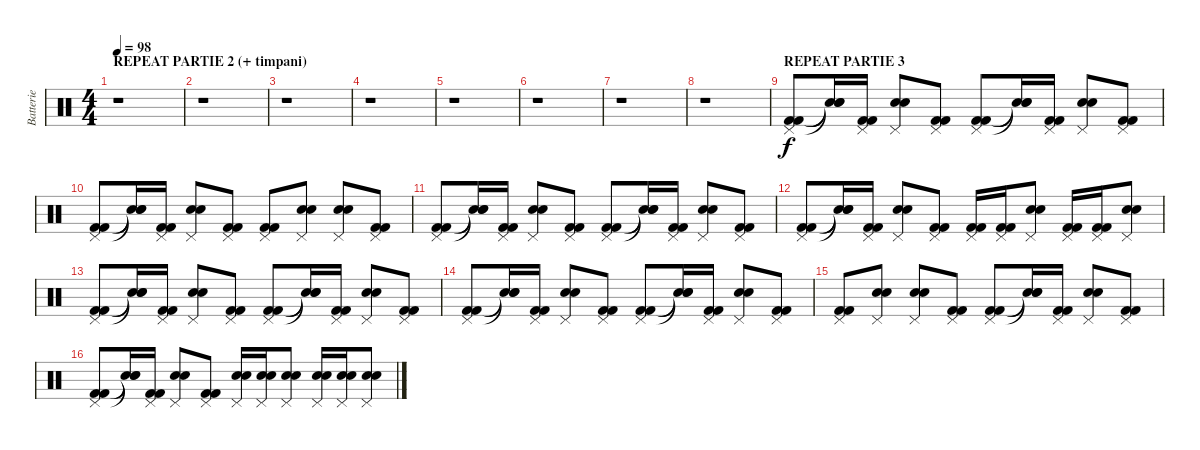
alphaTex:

\track ("Batterie" "Batterie") {instrument percussion}
\staff {score}
\articulation defaults
\ts (4 4)
\section ("" "REPEAT PARTIE 2 (+ timpani)")
\tempo 98
\clef neutral
\ks c
r.1{dy f} |
r.1 |
r.1 |
r.1 |
r.1 |
r.1 |
r.1 |
r.1 |
\section ("" "REPEAT PARTIE 3")
("Pedal Hi-Hat (hit)" "Kick (hit) 2" "Kick (hit) 2").8 ("Snare (hit)"{t} "Snare (hit)"{t} "Snare (hit)"{t}).16 ("Pedal Hi-Hat (hit)" "Kick (hit) 2" "Kick (hit) 2").16 ("Pedal Hi-Hat (hit)" "Electric Snare (hit)" "Electric Snare (hit)").8 ("Pedal Hi-Hat (hit)" "Kick (hit) 2" "Kick (hit) 2").8 ("Pedal Hi-Hat (hit)" "Kick (hit) 2" "Kick (hit) 2").8 ("Snare (hit)"{t} "Snare (hit)"{t} "Snare (hit)"{t}).16 ("Pedal Hi-Hat (hit)" "Kick (hit) 2" "Kick (hit) 2").16 ("Pedal Hi-Hat (hit)" "Electric Snare (hit)" "Electric Snare (hit)").8 ("Pedal Hi-Hat (hit)" "Kick (hit) 2" "Kick (hit) 2").8 |
("Pedal Hi-Hat (hit)" "Kick (hit) 2" "Kick (hit) 2").8 ("Snare (hit)"{t} "Snare (hit)"{t} "Snare (hit)"{t}).16 ("Pedal Hi-Hat (hit)" "Kick (hit) 2" "Kick (hit) 2").16 ("Pedal Hi-Hat (hit)" "Electric Snare (hit)" "Electric Snare (hit)").8 ("Pedal Hi-Hat (hit)" "Kick (hit) 2" "Kick (hit) 2").8 ("Pedal Hi-Hat (hit)" "Kick (hit) 2" "Kick (hit) 2").8 ("Pedal Hi-Hat (hit)" "Electric Snare (hit)" "Electric Snare (hit)").8 ("Pedal Hi-Hat (hit)" "Electric Snare (hit)" "Electric Snare (hit)").8 ("Pedal Hi-Hat (hit)" "Kick (hit) 2" "Kick (hit) 2").8 |
("Pedal Hi-Hat (hit)" "Kick (hit) 2" "Kick (hit) 2").8 ("Snare (hit)"{t} "Snare (hit)"{t} "Snare (hit)"{t}).16 ("Pedal Hi-Hat (hit)" "Kick (hit) 2" "Kick (hit) 2").16 ("Pedal Hi-Hat (hit)" "Electric Snare (hit)" "Electric Snare (hit)").8 ("Pedal Hi-Hat (hit)" "Kick (hit) 2" "Kick (hit) 2").8 ("Pedal Hi-Hat (hit)" "Kick (hit) 2" "Kick (hit) 2").8 ("Snare (hit)"{t} "Snare (hit)"{t} "Snare (hit)"{t}).16 ("Pedal Hi-Hat (hit)" "Kick (hit) 2" "Kick (hit) 2").16 ("Pedal Hi-Hat (hit)" "Electric Snare (hit)" "Electric Snare (hit)").8 ("Pedal Hi-Hat (hit)" "Kick (hit) 2" "Kick (hit) 2").8 |
("Pedal Hi-Hat (hit)" "Kick (hit) 2" "Kick (hit) 2").8 ("Snare (hit)"{t} "Snare (hit)"{t} "Snare (hit)"{t}).16 ("Pedal Hi-Hat (hit)" "Kick (hit) 2" "Kick (hit) 2").16 ("Pedal Hi-Hat (hit)" "Electric Snare (hit)" "Electric Snare (hit)").8 ("Pedal Hi-Hat (hit)" "Kick (hit) 2" "Kick (hit) 2").8 ("Pedal Hi-Hat (hit)" "Kick (hit) 2" "Kick (hit) 2").16 ("Pedal Hi-Hat (hit)" "Kick (hit) 2" "Kick (hit) 2").16 ("Pedal Hi-Hat (hit)" "Electric Snare (hit)" "Electric Snare (hit)").8 ("Pedal Hi-Hat (hit)" "Kick (hit) 2" "Kick (hit) 2").16 ("Pedal Hi-Hat (hit)" "Kick (hit) 2" "Kick (hit) 2").16 ("Pedal Hi-Hat (hit)" "Electric Snare (hit)" "Electric Snare (hit)").8 |
("Pedal Hi-Hat (hit)" "Kick (hit) 2" "Kick (hit) 2").8 ("Snare (hit)"{t} "Snare (hit)"{t} "Snare (hit)"{t}).16 ("Pedal Hi-Hat (hit)" "Kick (hit) 2" "Kick (hit) 2").16 ("Pedal Hi-Hat (hit)" "Electric Snare (hit)" "Electric Snare (hit)").8 ("Pedal Hi-Hat (hit)" "Kick (hit) 2" "Kick (hit) 2").8 ("Pedal Hi-Hat (hit)" "Kick (hit) 2" "Kick (hit) 2").8 ("Snare (hit)"{t} "Snare (hit)"{t} "Snare (hit)"{t}).16 ("Pedal Hi-Hat (hit)" "Kick (hit) 2" "Kick (hit) 2").16 ("Pedal Hi-Hat (hit)" "Electric Snare (hit)" "Electric Snare (hit)").8 ("Pedal Hi-Hat (hit)" "Kick (hit) 2" "Kick (hit) 2").8 |
("Pedal Hi-Hat (hit)" "Kick (hit) 2" "Kick (hit) 2").8 ("Snare (hit)"{t} "Snare (hit)"{t} "Snare (hit)"{t}).16 ("Pedal Hi-Hat (hit)" "Kick (hit) 2" "Kick (hit) 2").16 ("Pedal Hi-Hat (hit)" "Electric Snare (hit)" "Electric Snare (hit)").8 ("Pedal Hi-Hat (hit)" "Kick (hit) 2" "Kick (hit) 2").8 ("Pedal Hi-Hat (hit)" "Kick (hit) 2" "Kick (hit) 2").8 ("Snare (hit)"{t} "Snare (hit)"{t} "Snare (hit)"{t}).16 ("Pedal Hi-Hat (hit)" "Kick (hit) 2" "Kick (hit) 2").16 ("Pedal Hi-Hat (hit)" "Electric Snare (hit)" "Electric Snare (hit)").8 ("Pedal Hi-Hat (hit)" "Kick (hit) 2" "Kick (hit) 2").8 |
("Pedal Hi-Hat (hit)" "Kick (hit) 2" "Kick (hit) 2").8 ("Pedal Hi-Hat (hit)" "Electric Snare (hit)" "Electric Snare (hit)").8 ("Pedal Hi-Hat (hit)" "Electric Snare (hit)" "Electric Snare (hit)").8 ("Pedal Hi-Hat (hit)" "Kick (hit) 2" "Kick (hit) 2").8 ("Pedal Hi-Hat (hit)" "Kick (hit) 2" "Kick (hit) 2").8 ("Snare (hit)"{t} "Snare (hit)"{t} "Snare (hit)"{t}).16 ("Pedal Hi-Hat (hit)" "Kick (hit) 2" "Kick (hit) 2").16 ("Pedal Hi-Hat (hit)" "Electric Snare (hit)" "Electric Snare (hit)").8 ("Pedal Hi-Hat (hit)" "Kick (hit) 2" "Kick (hit) 2").8 |
("Pedal Hi-Hat (hit)" "Kick (hit) 2" "Kick (hit) 2").8 ("Snare (hit)"{t} "Snare (hit)"{t} "Snare (hit)"{t}).16 ("Pedal Hi-Hat (hit)" "Kick (hit) 2" "Kick (hit) 2").16 ("Pedal Hi-Hat (hit)" "Electric Snare (hit)" "Electric Snare (hit)").8 ("Pedal Hi-Hat (hit)" "Kick (hit) 2" "Kick (hit) 2").8 ("Pedal Hi-Hat (hit)" "Electric Snare (hit)" "Electric Snare (hit)").16 ("Pedal Hi-Hat (hit)" "Electric Snare (hit)" "Electric Snare (hit)").16 ("Pedal Hi-Hat (hit)" "Electric Snare (hit)" "Electric Snare (hit)").8 ("Pedal Hi-Hat (hit)" "Electric Snare (hit)" "Electric Snare (hit)").16 ("Pedal Hi-Hat (hit)" "Electric Snare (hit)" "Electric Snare (hit)").16 ("Pedal Hi-Hat (hit)" "Electric Snare (hit)" "Electric Snare (hit)").8
